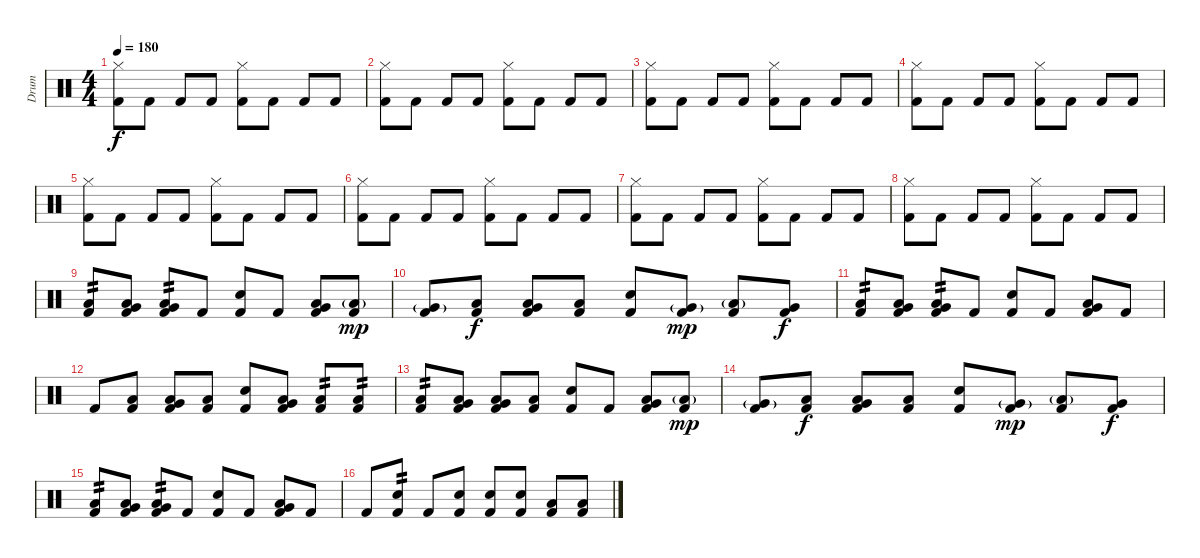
\track ("Drum" "Drum") {instrument percussion}
\staff {score}
\articulation defaults
\ts (4 4)
\tempo 180
\clef neutral
\ks c
("Hi-Hat (closed)" "Kick (hit) 2").8{dy f} "Kick (hit) 2".8 "Kick (hit) 2".8 "Kick (hit) 2".8 ("Hi-Hat (closed)" "Kick (hit) 2").8 "Kick (hit) 2".8 "Kick (hit) 2".8 "Kick (hit) 2".8 |
("Hi-Hat (closed)" "Kick (hit) 2").8 "Kick (hit) 2".8 "Kick (hit) 2".8 "Kick (hit) 2".8 ("Hi-Hat (closed)" "Kick (hit) 2").8 "Kick (hit) 2".8 "Kick (hit) 2".8 "Kick (hit) 2".8 |
("Hi-Hat (closed)" "Kick (hit) 2").8 "Kick (hit) 2".8 "Kick (hit) 2".8 "Kick (hit) 2".8 ("Hi-Hat (closed)" "Kick (hit) 2").8 "Kick (hit) 2".8 "Kick (hit) 2".8 "Kick (hit) 2".8 |
("Hi-Hat (closed)" "Kick (hit) 2").8 "Kick (hit) 2".8 "Kick (hit) 2".8 "Kick (hit) 2".8 ("Hi-Hat (closed)" "Kick (hit) 2").8 "Kick (hit) 2".8 "Kick (hit) 2".8 "Kick (hit) 2".8 |
("Hi-Hat (closed)" "Kick (hit) 2").8 "Kick (hit) 2".8 "Kick (hit) 2".8 "Kick (hit) 2".8 ("Hi-Hat (closed)" "Kick (hit) 2").8 "Kick (hit) 2".8 "Kick (hit) 2".8 "Kick (hit) 2".8 |
("Hi-Hat (closed)" "Kick (hit) 2").8 "Kick (hit) 2".8 "Kick (hit) 2".8 "Kick (hit) 2".8 ("Hi-Hat (closed)" "Kick (hit) 2").8 "Kick (hit) 2".8 "Kick (hit) 2".8 "Kick (hit) 2".8 |
("Hi-Hat (closed)" "Kick (hit) 2").8 "Kick (hit) 2".8 "Kick (hit) 2".8 "Kick (hit) 2".8 ("Hi-Hat (closed)" "Kick (hit) 2").8 "Kick (hit) 2".8 "Kick (hit) 2".8 "Kick (hit) 2".8 |
("Hi-Hat (closed)" "Kick (hit) 2").8 "Kick (hit) 2".8 "Kick (hit) 2".8 "Kick (hit) 2".8 ("Hi-Hat (closed)" "Kick (hit) 2").8 "Kick (hit) 2".8 "Kick (hit) 2".8 "Kick (hit) 2".8 |
("Low Floor Tom (hit)" "Kick (hit) 2").8{tp 2} ("Very Low Tom (hit)" "Low Floor Tom (hit)" "Kick (hit) 2").8 ("Very Low Tom (hit)" "Low Floor Tom (hit)" "Kick (hit) 2").8{tp 2} "Kick (hit) 2".8 ("Snare (hit) 2" "Kick (hit) 2").8 "Kick (hit) 2".8 ("Very Low Tom (hit)" "Low Floor Tom (hit)" "Kick (hit) 2").8 ("Low Floor Tom (hit)"{g} "Kick (hit) 2").8{dy mp} |
("Very Low Tom (hit)"{g} "Kick (hit) 2").8 ("Low Floor Tom (hit)" "Kick (hit) 2").8{dy f} ("Low Floor Tom (hit)" "Very Low Tom (hit)" "Kick (hit) 2").8 ("Low Floor Tom (hit)" "Kick (hit) 2").8 ("Snare (hit) 2" "Kick (hit) 2").8 ("Very Low Tom (hit)"{g} "Kick (hit) 2").8{dy mp} ("Low Floor Tom (hit)"{g} "Kick (hit) 2").8 ("Very Low Tom (hit)" "Kick (hit) 2").8{dy f} |
("Low Floor Tom (hit)" "Kick (hit) 2").8{tp 2} ("Very Low Tom (hit)" "Low Floor Tom (hit)" "Kick (hit) 2").8 ("Very Low Tom (hit)" "Low Floor Tom (hit)" "Kick (hit) 2").8{tp 2} "Kick (hit) 2".8 ("Snare (hit) 2" "Kick (hit) 2").8 "Kick (hit) 2".8 ("Very Low Tom (hit)" "Low Floor Tom (hit)" "Kick (hit) 2").8 "Kick (hit) 2".8 |
"Kick (hit) 2".8 ("Low Floor Tom (hit)" "Kick (hit) 2").8 ("Low Floor Tom (hit)" "Very Low Tom (hit)" "Kick (hit) 2").8 ("Low Floor Tom (hit)" "Kick (hit) 2").8 ("Snare (hit) 2" "Kick (hit) 2").8 ("Low Floor Tom (hit)" "Very Low Tom (hit)" "Kick (hit) 2").8 ("Low Floor Tom (hit)" "Kick (hit) 2").8{tp 2} ("Low Floor Tom (hit)" "Kick (hit) 2").8{tp 2} |
("Low Floor Tom (hit)" "Kick (hit) 2").8{tp 2} ("Very Low Tom (hit)" "Low Floor Tom (hit)" "Kick (hit) 2").8 ("Very Low Tom (hit)" "Low Floor Tom (hit)" "Kick (hit) 2").8 ("Low Floor Tom (hit)" "Kick (hit) 2").8 ("Snare (hit) 2" "Kick (hit) 2").8 "Kick (hit) 2".8 ("Very Low Tom (hit)" "Low Floor Tom (hit)" "Kick (hit) 2").8 ("Low Floor Tom (hit)"{g} "Kick (hit) 2").8{dy mp} |
("Very Low Tom (hit)"{g} "Kick (hit) 2").8 ("Low Floor Tom (hit)" "Kick (hit) 2").8{dy f} ("Low Floor Tom (hit)" "Very Low Tom (hit)" "Kick (hit) 2").8 ("Low Floor Tom (hit)" "Kick (hit) 2").8 ("Snare (hit) 2" "Kick (hit) 2").8 ("Very Low Tom (hit)"{g} "Kick (hit) 2").8{dy mp} ("Low Floor Tom (hit)"{g} "Kick (hit) 2").8 ("Very Low Tom (hit)" "Kick (hit) 2").8{dy f} |
("Low Floor Tom (hit)" "Kick (hit) 2").8{tp 2} ("Very Low Tom (hit)" "Low Floor Tom (hit)" "Kick (hit) 2").8 ("Very Low Tom (hit)" "Low Floor Tom (hit)" "Kick (hit) 2").8{tp 2} "Kick (hit) 2".8 ("Snare (hit) 2" "Kick (hit) 2").8 "Kick (hit) 2".8 ("Very Low Tom (hit)" "Low Floor Tom (hit)" "Kick (hit) 2").8 "Kick (hit) 2".8 |
"Kick (hit) 2".8 ("Snare (hit) 2" "Kick (hit) 2").8{tp 2} "Kick (hit) 2".8 ("Snare (hit) 2" "Kick (hit) 2").8 ("Snare (hit) 2" "Kick (hit) 2").8 ("Snare (hit) 2" "Kick (hit) 2").8 ("Low Floor Tom (hit)" "Kick (hit) 2").8 ("Low Floor Tom (hit)" "Kick (hit) 2").8
